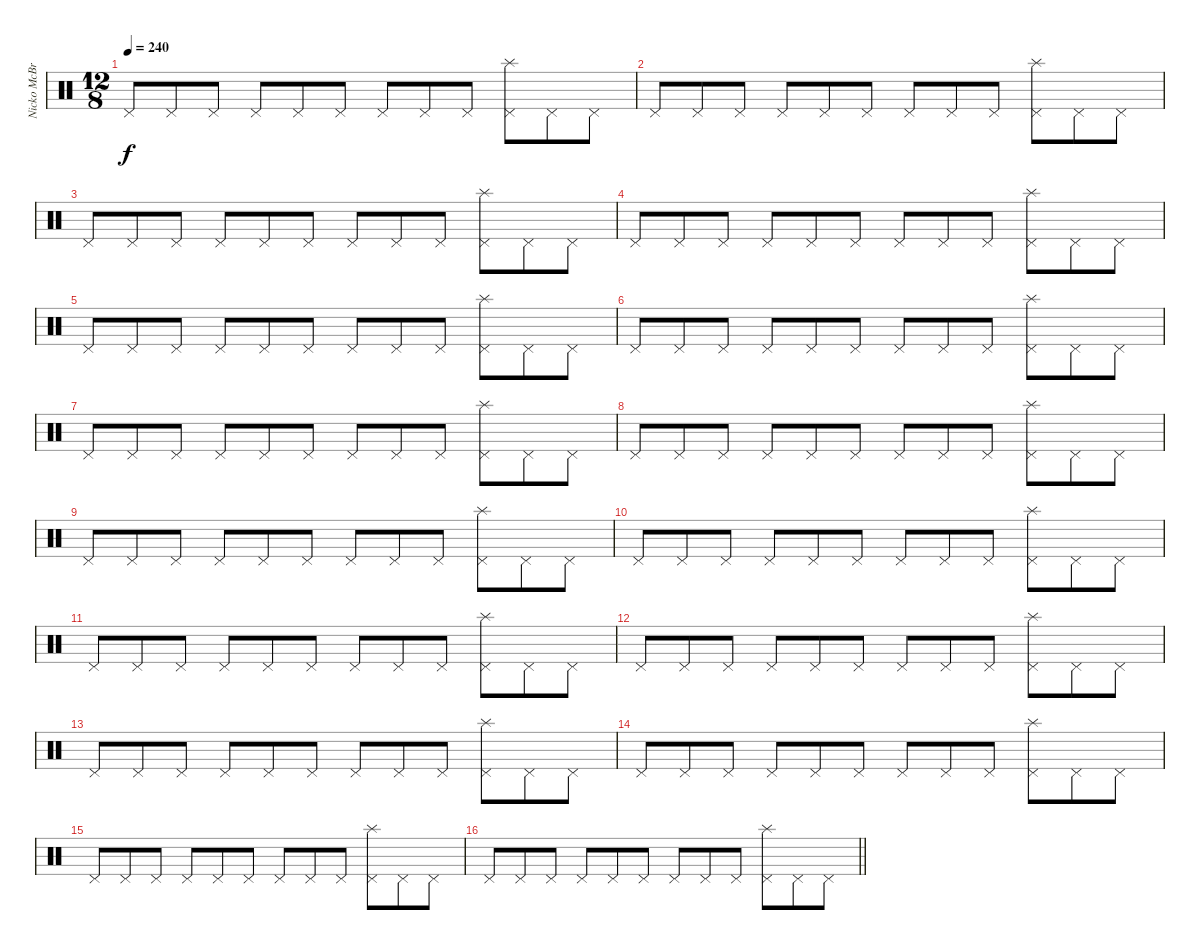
\track ("Nicko McBrian (Drums)" "Nicko McBr") {instrument percussion}
\staff {score}
\articulation defaults
\ts (12 8)
\tempo 240
\clef neutral
\ks c "Pedal Hi-Hat (hit)".8{dy f} "Pedal Hi-Hat (hit)".8 "Pedal Hi-Hat (hit)".8 "Pedal Hi-Hat (hit)".8 "Pedal Hi-Hat (hit)".8 "Pedal Hi-Hat (hit)".8 "Pedal Hi-Hat (hit)".8 "Pedal Hi-Hat (hit)".8 "Pedal Hi-Hat (hit)".8
("Pedal Hi-Hat (hit)" "Splash (hit)").8 "Pedal Hi-Hat (hit)".8 "Pedal Hi-Hat (hit)".8 |
"Pedal Hi-Hat (hit)".8 "Pedal Hi-Hat (hit)".8 "Pedal Hi-Hat (hit)".8 "Pedal Hi-Hat (hit)".8 "Pedal Hi-Hat (hit)".8 "Pedal Hi-Hat (hit)".8 "Pedal Hi-Hat (hit)".8 "Pedal Hi-Hat (hit)".8 "Pedal Hi-Hat (hit)".8 ("Pedal Hi-Hat (hit)" "Splash (hit)").8 "Pedal Hi-Hat (hit)".8 "Pedal Hi-Hat (hit)".8 |
"Pedal Hi-Hat (hit)".8 "Pedal Hi-Hat (hit)".8 "Pedal Hi-Hat (hit)".8 "Pedal Hi-Hat (hit)".8 "Pedal Hi-Hat (hit)".8 "Pedal Hi-Hat (hit)".8 "Pedal Hi-Hat (hit)".8 "Pedal Hi-Hat (hit)".8 "Pedal Hi-Hat (hit)".8 ("Pedal Hi-Hat (hit)" "Splash (hit)").8 "Pedal Hi-Hat (hit)".8 "Pedal Hi-Hat (hit)".8 |
"Pedal Hi-Hat (hit)".8 "Pedal Hi-Hat (hit)".8 "Pedal Hi-Hat (hit)".8 "Pedal Hi-Hat (hit)".8 "Pedal Hi-Hat (hit)".8 "Pedal Hi-Hat (hit)".8 "Pedal Hi-Hat (hit)".8 "Pedal Hi-Hat (hit)".8 "Pedal Hi-Hat (hit)".8 ("Pedal Hi-Hat (hit)" "Splash (hit)").8 "Pedal Hi-Hat (hit)".8 "Pedal Hi-Hat (hit)".8 |
"Pedal Hi-Hat (hit)".8 "Pedal Hi-Hat (hit)".8 "Pedal Hi-Hat (hit)".8 "Pedal Hi-Hat (hit)".8 "Pedal Hi-Hat (hit)".8 "Pedal Hi-Hat (hit)".8 "Pedal Hi-Hat (hit)".8 "Pedal Hi-Hat (hit)".8 "Pedal Hi-Hat (hit)".8 ("Pedal Hi-Hat (hit)" "Splash (hit)").8 "Pedal Hi-Hat (hit)".8 "Pedal Hi-Hat (hit)".8 |
"Pedal Hi-Hat (hit)".8 "Pedal Hi-Hat (hit)".8 "Pedal Hi-Hat (hit)".8 "Pedal Hi-Hat (hit)".8 "Pedal Hi-Hat (hit)".8 "Pedal Hi-Hat (hit)".8 "Pedal Hi-Hat (hit)".8 "Pedal Hi-Hat (hit)".8 "Pedal Hi-Hat (hit)".8 ("Pedal Hi-Hat (hit)" "Splash (hit)").8 "Pedal Hi-Hat (hit)".8 "Pedal Hi-Hat (hit)".8 |
"Pedal Hi-Hat (hit)".8 "Pedal Hi-Hat (hit)".8 "Pedal Hi-Hat (hit)".8 "Pedal Hi-Hat (hit)".8 "Pedal Hi-Hat (hit)".8 "Pedal Hi-Hat (hit)".8 "Pedal Hi-Hat (hit)".8 "Pedal Hi-Hat (hit)".8 "Pedal Hi-Hat (hit)".8 ("Pedal Hi-Hat (hit)" "Splash (hit)").8 "Pedal Hi-Hat (hit)".8 "Pedal Hi-Hat (hit)".8 |
"Pedal Hi-Hat (hit)".8 "Pedal Hi-Hat (hit)".8 "Pedal Hi-Hat (hit)".8 "Pedal Hi-Hat (hit)".8 "Pedal Hi-Hat (hit)".8 "Pedal Hi-Hat (hit)".8 "Pedal Hi-Hat (hit)".8 "Pedal Hi-Hat (hit)".8 "Pedal Hi-Hat (hit)".8 ("Pedal Hi-Hat (hit)" "Splash (hit)").8 "Pedal Hi-Hat (hit)".8 "Pedal Hi-Hat (hit)".8 |
"Pedal Hi-Hat (hit)".8 "Pedal Hi-Hat (hit)".8 "Pedal Hi-Hat (hit)".8 "Pedal Hi-Hat (hit)".8 "Pedal Hi-Hat (hit)".8 "Pedal Hi-Hat (hit)".8 "Pedal Hi-Hat (hit)".8 "Pedal Hi-Hat (hit)".8 "Pedal Hi-Hat (hit)".8 ("Pedal Hi-Hat (hit)" "Splash (hit)").8 "Pedal Hi-Hat (hit)".8 "Pedal Hi-Hat (hit)".8 |
"Pedal Hi-Hat (hit)".8 "Pedal Hi-Hat (hit)".8 "Pedal Hi-Hat (hit)".8 "Pedal Hi-Hat (hit)".8 "Pedal Hi-Hat (hit)".8 "Pedal Hi-Hat (hit)".8 "Pedal Hi-Hat (hit)".8 "Pedal Hi-Hat (hit)".8 "Pedal Hi-Hat (hit)".8 ("Pedal Hi-Hat (hit)" "Splash (hit)").8 "Pedal Hi-Hat (hit)".8 "Pedal Hi-Hat (hit)".8 |
"Pedal Hi-Hat (hit)".8 "Pedal Hi-Hat (hit)".8 "Pedal Hi-Hat (hit)".8 "Pedal Hi-Hat (hit)".8 "Pedal Hi-Hat (hit)".8 "Pedal Hi-Hat (hit)".8 "Pedal Hi-Hat (hit)".8 "Pedal Hi-Hat (hit)".8 "Pedal Hi-Hat (hit)".8 ("Pedal Hi-Hat (hit)" "Splash (hit)").8 "Pedal Hi-Hat (hit)".8 "Pedal Hi-Hat (hit)".8 |
"Pedal Hi-Hat (hit)".8 "Pedal Hi-Hat (hit)".8 "Pedal Hi-Hat (hit)".8 "Pedal Hi-Hat (hit)".8 "Pedal Hi-Hat (hit)".8 "Pedal Hi-Hat (hit)".8 "Pedal Hi-Hat (hit)".8 "Pedal Hi-Hat (hit)".8 "Pedal Hi-Hat (hit)".8 ("Pedal Hi-Hat (hit)" "Splash (hit)").8 "Pedal Hi-Hat (hit)".8 "Pedal Hi-Hat (hit)".8 |
"Pedal Hi-Hat (hit)".8 "Pedal Hi-Hat (hit)".8 "Pedal Hi-Hat (hit)".8 "Pedal Hi-Hat (hit)".8 "Pedal Hi-Hat (hit)".8 "Pedal Hi-Hat (hit)".8 "Pedal Hi-Hat (hit)".8 "Pedal Hi-Hat (hit)".8 "Pedal Hi-Hat (hit)".8 ("Pedal Hi-Hat (hit)" "Splash (hit)").8 "Pedal Hi-Hat (hit)".8 "Pedal Hi-Hat (hit)".8 |
"Pedal Hi-Hat (hit)".8 "Pedal Hi-Hat (hit)".8 "Pedal Hi-Hat (hit)".8 "Pedal Hi-Hat (hit)".8 "Pedal Hi-Hat (hit)".8 "Pedal Hi-Hat (hit)".8 "Pedal Hi-Hat (hit)".8 "Pedal Hi-Hat (hit)".8 "Pedal Hi-Hat (hit)".8 ("Pedal Hi-Hat (hit)" "Splash (hit)").8 "Pedal Hi-Hat (hit)".8 "Pedal Hi-Hat (hit)".8 |
"Pedal Hi-Hat (hit)".8 "Pedal Hi-Hat (hit)".8 "Pedal Hi-Hat (hit)".8 "Pedal Hi-Hat (hit)".8 "Pedal Hi-Hat (hit)".8 "Pedal Hi-Hat (hit)".8 "Pedal Hi-Hat (hit)".8 "Pedal Hi-Hat (hit)".8 "Pedal Hi-Hat (hit)".8 ("Pedal Hi-Hat (hit)" "Splash (hit)").8 "Pedal Hi-Hat (hit)".8 "Pedal Hi-Hat (hit)".8 |
\barLineRight lightlight "Pedal Hi-Hat (hit)".8 "Pedal Hi-Hat (hit)".8 "Pedal Hi-Hat (hit)".8 "Pedal Hi-Hat (hit)".8 "Pedal Hi-Hat (hit)".8 "Pedal Hi-Hat (hit)".8 "Pedal Hi-Hat (hit)".8 "Pedal Hi-Hat (hit)".8 "Pedal Hi-Hat (hit)".8
("Pedal Hi-Hat (hit)" "Splash (hit)").8 "Pedal Hi-Hat (hit)".8 "Pedal Hi-Hat (hit)".8
